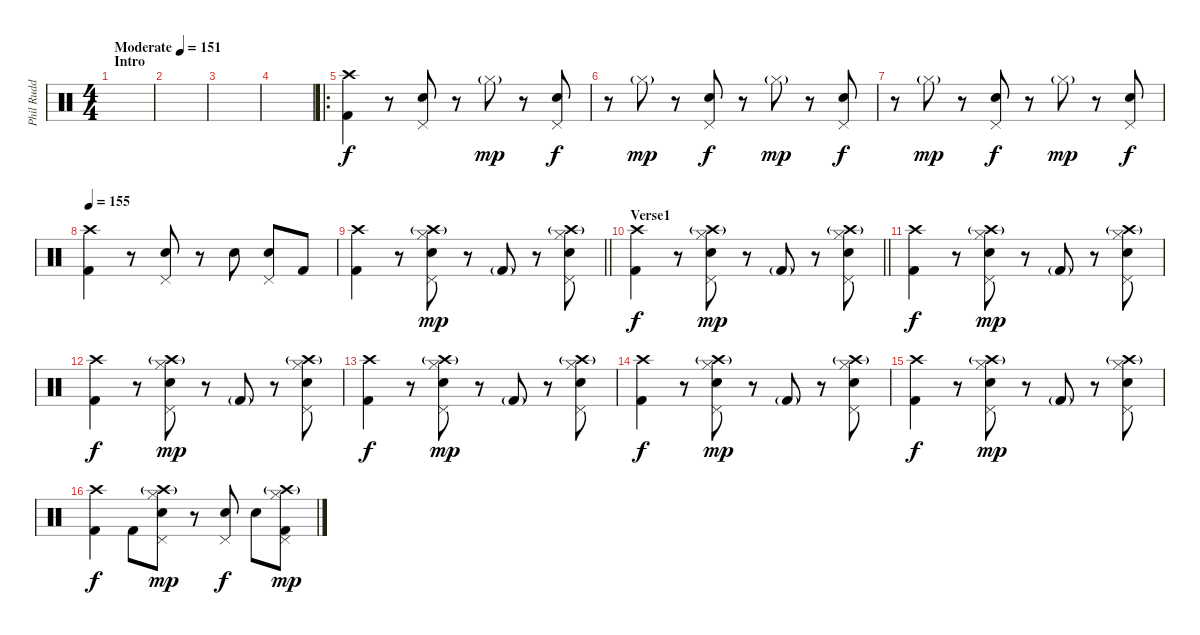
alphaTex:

\track ("Phil Rudd" "Phil Rudd") {instrument percussion}
\staff {score}
\articulation defaults
\ts (4 4)
\section ("" "Intro")
\tempo (151 "Moderate")
\clef neutral
\ks c
|
|
|
|
\ro
("Kick (hit) 2" "Crash high (hit)").4 r.8 ("Snare (hit) 2" "Pedal Hi-Hat (hit)").8 r.8 "Hi-Hat (closed)"{g}.8{dy mp} r.8 ("Snare (hit) 2" "Pedal Hi-Hat (hit)").8{dy f} |
r.8 "Hi-Hat (closed)"{g}.8{dy mp} r.8 ("Snare (hit) 2" "Pedal Hi-Hat (hit)").8{dy f} r.8 "Hi-Hat (closed)"{g}.8{dy mp} r.8 ("Snare (hit) 2" "Pedal Hi-Hat (hit)").8{dy f} |
r.8 "Hi-Hat (closed)"{g}.8{dy mp} r.8 ("Snare (hit) 2" "Pedal Hi-Hat (hit)").8{dy f} r.8 "Hi-Hat (closed)"{g}.8{dy mp} r.8 ("Snare (hit) 2" "Pedal Hi-Hat (hit)").8{dy f} |
\tempo 155
("Kick (hit) 2" "Crash high (hit)").4 r.8 ("Snare (hit) 2" "Pedal Hi-Hat (hit)").8 r.8 "Snare (hit) 2".8 ("Snare (hit) 2" "Pedal Hi-Hat (hit)").8 "Kick (hit) 2".8 |
\barLineRight lightlight
("Kick (hit) 2" "Crash high (hit)").4 r.8 ("Snare (hit) 2" "Pedal Hi-Hat (hit)" "Hi-Hat (closed)" "Crash high (hit)"{g}).8{dy mp} r.8 "Kick (hit) 2"{g}.8 r.8 ("Snare (hit) 2" "Pedal Hi-Hat (hit)" "Hi-Hat (closed)" "Crash high (hit)"{g}).8 |
\section ("" "Verse1")
\barLineRight lightlight
("Kick (hit) 2" "Crash high (hit)").4{dy f} r.8 ("Snare (hit) 2" "Pedal Hi-Hat (hit)" "Hi-Hat (closed)" "Crash high (hit)"{g}).8{dy mp} r.8 "Kick (hit) 2"{g}.8 r.8 ("Snare (hit) 2" "Pedal Hi-Hat (hit)" "Hi-Hat (closed)" "Crash high (hit)"{g}).8 |
("Kick (hit) 2" "Crash high (hit)").4{dy f} r.8 ("Snare (hit) 2" "Pedal Hi-Hat (hit)" "Hi-Hat (closed)" "Crash high (hit)"{g}).8{dy mp} r.8 "Kick (hit) 2"{g}.8 r.8 ("Snare (hit) 2" "Pedal Hi-Hat (hit)" "Hi-Hat (closed)" "Crash high (hit)"{g}).8 |
("Kick (hit) 2" "Crash high (hit)").4{dy f} r.8 ("Snare (hit) 2" "Pedal Hi-Hat (hit)" "Hi-Hat (closed)" "Crash high (hit)"{g}).8{dy mp} r.8 "Kick (hit) 2"{g}.8 r.8 ("Snare (hit) 2" "Pedal Hi-Hat (hit)" "Hi-Hat (closed)" "Crash high (hit)"{g}).8 |
("Kick (hit) 2" "Crash high (hit)").4{dy f} r.8 ("Snare (hit) 2" "Pedal Hi-Hat (hit)" "Hi-Hat (closed)" "Crash high (hit)"{g}).8{dy mp} r.8 "Kick (hit) 2"{g}.8 r.8 ("Snare (hit) 2" "Pedal Hi-Hat (hit)" "Hi-Hat (closed)" "Crash high (hit)"{g}).8 |
("Kick (hit) 2" "Crash high (hit)").4{dy f} r.8 ("Snare (hit) 2" "Pedal Hi-Hat (hit)" "Hi-Hat (closed)" "Crash high (hit)"{g}).8{dy mp} r.8 "Kick (hit) 2"{g}.8 r.8 ("Snare (hit) 2" "Pedal Hi-Hat (hit)" "Hi-Hat (closed)" "Crash high (hit)"{g}).8 |
("Kick (hit) 2" "Crash high (hit)").4{dy f} r.8 ("Snare (hit) 2" "Pedal Hi-Hat (hit)" "Hi-Hat (closed)" "Crash high (hit)"{g}).8{dy mp} r.8 "Kick (hit) 2"{g}.8 r.8 ("Snare (hit) 2" "Pedal Hi-Hat (hit)" "Hi-Hat (closed)" "Crash high (hit)"{g}).8 |
("Kick (hit) 2" "Crash high (hit)").4{dy f} "Kick (hit) 2".8 ("Snare (hit) 2" "Pedal Hi-Hat (hit)" "Hi-Hat (closed)" "Crash high (hit)"{g}).8{dy mp} r.8 ("Snare (hit) 2" "Pedal Hi-Hat (hit)").8{dy f} "Snare (hit) 2".8 ("Kick (hit) 2" "Pedal Hi-Hat (hit)" "Hi-Hat (closed)" "Crash high (hit)"{g}).8{dy mp}
